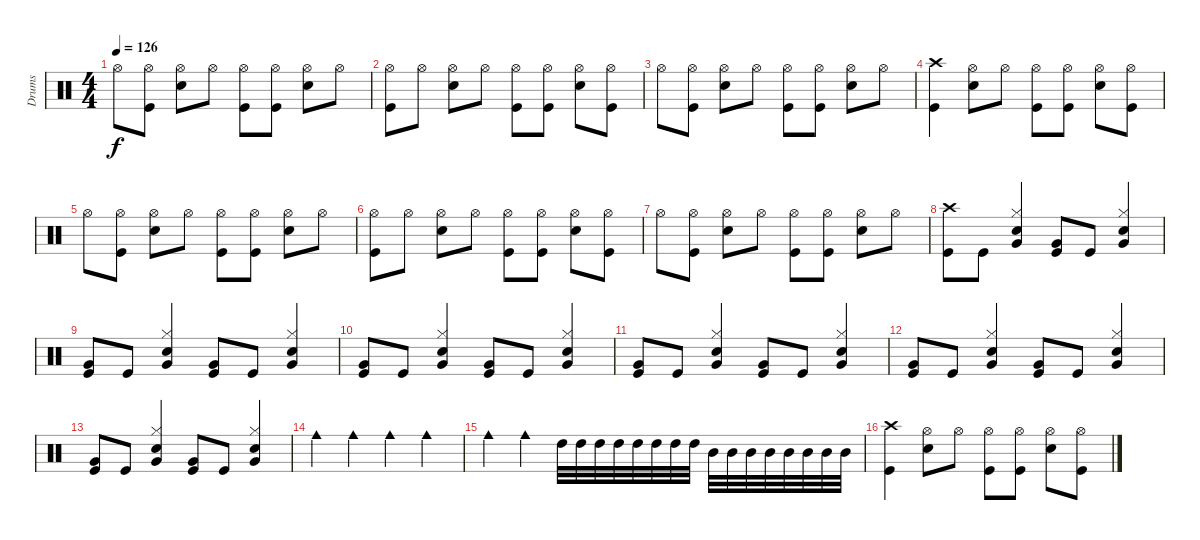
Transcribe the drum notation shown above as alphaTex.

\track ("Drums" "Drums") {instrument percussion}
\staff {score}
\articulation defaults
\ts (4 4)
\tempo 126
\clef neutral
\ks c "Hi-Hat (open)".8{dy f}
("Hi-Hat (open)" "Kick (hit)").8 ("Snare (hit) 2" "Hi-Hat (open)").8 "Hi-Hat (open)".8 ("Hi-Hat (open)" "Kick (hit)").8 ("Hi-Hat (open)" "Kick (hit)").8 ("Hi-Hat (open)" "Snare (hit) 2").8 "Hi-Hat (open)".8 |
("Hi-Hat (open)" "Kick (hit)").8 "Hi-Hat (open)".8 ("Hi-Hat (open)" "Snare (hit) 2").8 "Hi-Hat (open)".8 ("Hi-Hat (open)" "Kick (hit)").8 ("Hi-Hat (open)" "Kick (hit)").8 ("Hi-Hat (open)" "Snare (hit) 2").8 ("Hi-Hat (open)" "Kick (hit)").8 |
"Hi-Hat (open)".8 ("Hi-Hat (open)" "Kick (hit)").8 ("Snare (hit) 2" "Hi-Hat (open)").8 "Hi-Hat (open)".8 ("Hi-Hat (open)" "Kick (hit)").8 ("Hi-Hat (open)" "Kick (hit)").8 ("Hi-Hat (open)" "Snare (hit) 2").8 "Hi-Hat (open)".8 |
("Crash high (hit)" "Kick (hit)").4 ("Hi-Hat (open)" "Snare (hit) 2").8 "Hi-Hat (open)".8 ("Hi-Hat (open)" "Kick (hit)").8 ("Hi-Hat (open)" "Kick (hit)").8 ("Hi-Hat (open)" "Snare (hit) 2").8 ("Hi-Hat (open)" "Kick (hit)").8 |
"Hi-Hat (open)".8 ("Hi-Hat (open)" "Kick (hit)").8 ("Snare (hit) 2" "Hi-Hat (open)").8 "Hi-Hat (open)".8 ("Hi-Hat (open)" "Kick (hit)").8 ("Hi-Hat (open)" "Kick (hit)").8 ("Hi-Hat (open)" "Snare (hit) 2").8 "Hi-Hat (open)".8 |
("Hi-Hat (open)" "Kick (hit)").8 "Hi-Hat (open)".8 ("Hi-Hat (open)" "Snare (hit) 2").8 "Hi-Hat (open)".8 ("Hi-Hat (open)" "Kick (hit)").8 ("Hi-Hat (open)" "Kick (hit)").8 ("Hi-Hat (open)" "Snare (hit) 2").8 ("Hi-Hat (open)" "Kick (hit)").8 |
"Hi-Hat (open)".8 ("Hi-Hat (open)" "Kick (hit)").8 ("Snare (hit) 2" "Hi-Hat (open)").8 "Hi-Hat (open)".8 ("Hi-Hat (open)" "Kick (hit)").8 ("Hi-Hat (open)" "Kick (hit)").8 ("Hi-Hat (open)" "Snare (hit) 2").8 "Hi-Hat (open)".8 |
("Crash high (hit)" "Kick (hit)").8 "Kick (hit)".8 ("Hi-Hat (closed)" "Very Low Tom (hit)" "Snare (hit) 2").4 ("Very Low Tom (hit)" "Kick (hit)").8 "Kick (hit)".8 ("Hi-Hat (closed)" "Very Low Tom (hit)" "Snare (hit) 2").4 |
("Very Low Tom (hit)" "Kick (hit)").8 "Kick (hit)".8 ("Hi-Hat (closed)" "Snare (hit) 2" "Very Low Tom (hit)").4 ("Very Low Tom (hit)" "Kick (hit)").8 "Kick (hit)".8 ("Hi-Hat (closed)" "Very Low Tom (hit)" "Snare (hit) 2").4 |
("Very Low Tom (hit)" "Kick (hit)").8 "Kick (hit)".8 ("Hi-Hat (closed)" "Very Low Tom (hit)" "Snare (hit) 2").4 ("Very Low Tom (hit)" "Kick (hit)").8 "Kick (hit)".8 ("Hi-Hat (closed)" "Very Low Tom (hit)" "Snare (hit) 2").4 |
("Very Low Tom (hit)" "Kick (hit)").8 "Kick (hit)".8 ("Snare (hit) 2" "Very Low Tom (hit)" "Hi-Hat (closed)").4 ("Very Low Tom (hit)" "Kick (hit)").8 "Kick (hit)".8 ("Very Low Tom (hit)" "Snare (hit) 2" "Hi-Hat (closed)").4 |
("Very Low Tom (hit)" "Kick (hit)").8 "Kick (hit)".8 ("Hi-Hat (closed)" "Very Low Tom (hit)" "Snare (hit) 2").4 ("Very Low Tom (hit)" "Kick (hit)").8 "Kick (hit)".8 ("Hi-Hat (closed)" "Very Low Tom (hit)" "Snare (hit) 2").4 |
("Very Low Tom (hit)" "Kick (hit)").8 "Kick (hit)".8 ("Hi-Hat (closed)" "Snare (hit) 2" "Very Low Tom (hit)").4 ("Very Low Tom (hit)" "Kick (hit)").8 "Kick (hit)".8 ("Hi-Hat (closed)" "Very Low Tom (hit)" "Snare (hit) 2").4 |
"Cowbell medium (hit)".4 "Cowbell medium (hit)".4 "Cowbell medium (hit)".4 "Cowbell medium (hit)".4 |
"Cowbell medium (hit)".4 "Cowbell medium (hit)".4 "High Tom (hit)".32 "High Tom (hit)".32 "High Tom (hit)".32 "High Tom (hit)".32 "High Tom (hit)".32 "High Tom (hit)".32 "High Tom (hit)".32 "High Tom (hit)".32 "Mid Tom (hit)".32 "Mid Tom (hit)".32 "Mid Tom (hit)".32 "Mid Tom (hit)".32 "Mid Tom (hit)".32 "Mid Tom (hit)".32 "Mid Tom (hit)".32 "Mid Tom (hit)".32 |
("Crash high (hit)" "Kick (hit)").4 ("Hi-Hat (open)" "Snare (hit) 2").8 "Hi-Hat (open)".8 ("Hi-Hat (open)" "Kick (hit)").8 ("Hi-Hat (open)" "Kick (hit)").8 ("Hi-Hat (open)" "Snare (hit) 2").8 ("Hi-Hat (open)" "Kick (hit)").8
